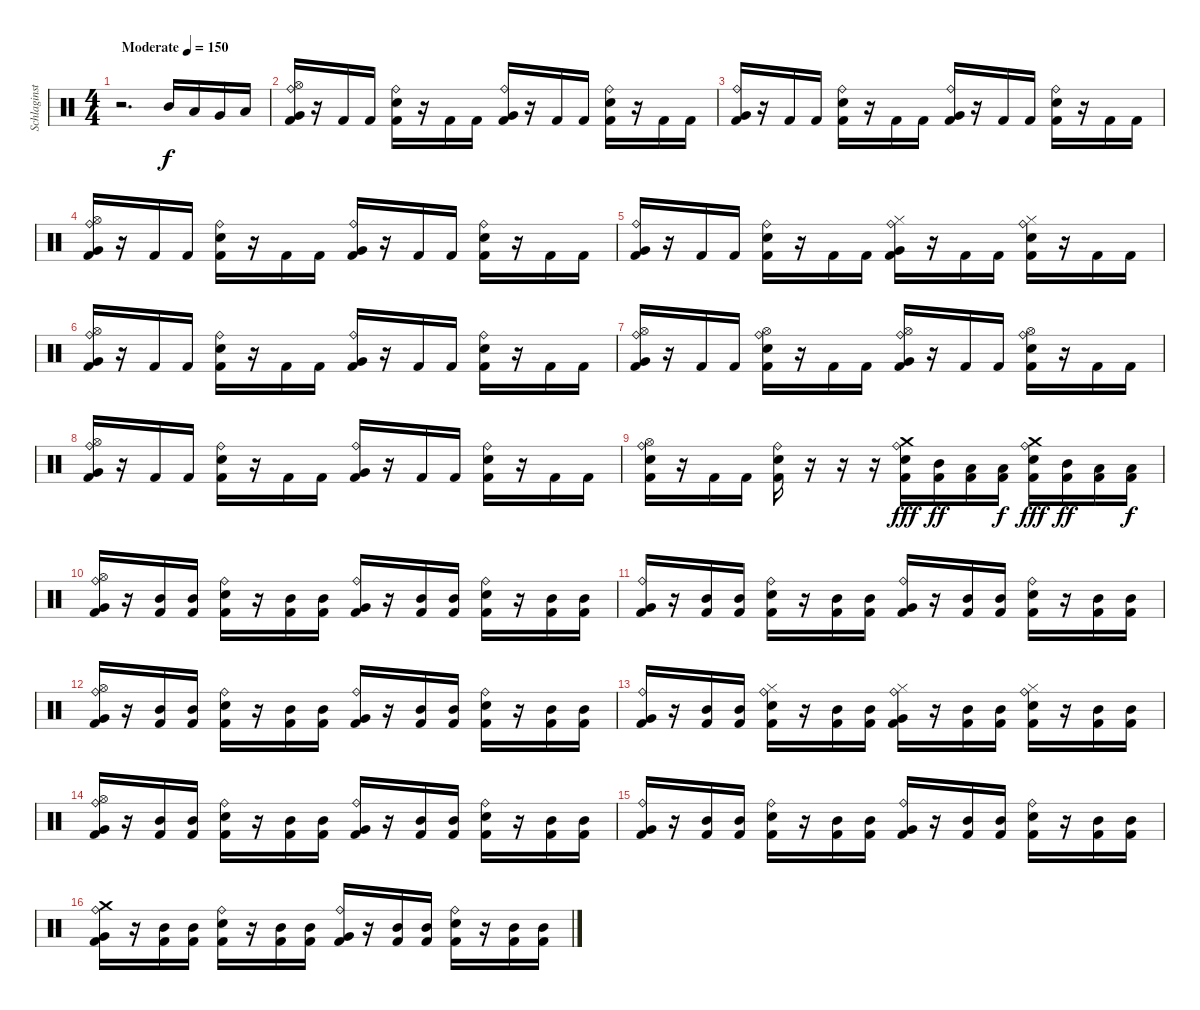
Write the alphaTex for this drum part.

\track ("Schlaginstrumente - Auswahl" "Schlaginst") {instrument percussion}
\staff {score}
\articulation defaults
\ts (4 4)
\tempo (150 "Moderate")
\clef neutral
\ks c
r.2{d dy f} "Mid Tom (hit)".16 "Low Tom (hit)".16 "Very Low Tom (hit)".16 "Low Floor Tom (hit)".16 |
("Ride (bell)" "Hi-Hat (open)" "Very Low Tom (hit)" "Kick (hit) 2").16 r.16 "Kick (hit) 2".16 "Kick (hit) 2".16 ("Ride (bell)" "Electric Snare (hit)" "Kick (hit) 2").16 r.16 "Kick (hit) 2".16 "Kick (hit) 2".16 ("Ride (bell)" "Very Low Tom (hit)" "Kick (hit) 2").16 r.16 "Kick (hit) 2".16 "Kick (hit) 2".16 ("Ride (bell)" "Electric Snare (hit)" "Kick (hit) 2").16 r.16 "Kick (hit) 2".16 "Kick (hit) 2".16 |
("Ride (bell)" "Very Low Tom (hit)" "Kick (hit) 2").16 r.16 "Kick (hit) 2".16 "Kick (hit) 2".16 ("Ride (bell)" "Electric Snare (hit)" "Kick (hit) 2").16 r.16 "Kick (hit) 2".16 "Kick (hit) 2".16 ("Ride (bell)" "Very Low Tom (hit)" "Kick (hit) 2").16 r.16 "Kick (hit) 2".16 "Kick (hit) 2".16 ("Ride (bell)" "Electric Snare (hit)" "Kick (hit) 2").16 r.16 "Kick (hit) 2".16 "Kick (hit) 2".16 |
("Ride (bell)" "Hi-Hat (open)" "Very Low Tom (hit)" "Kick (hit) 2").16 r.16 "Kick (hit) 2".16 "Kick (hit) 2".16 ("Ride (bell)" "Electric Snare (hit)" "Kick (hit) 2").16 r.16 "Kick (hit) 2".16 "Kick (hit) 2".16 ("Ride (bell)" "Very Low Tom (hit)" "Kick (hit) 2").16 r.16 "Kick (hit) 2".16 "Kick (hit) 2".16 ("Ride (bell)" "Electric Snare (hit)" "Kick (hit) 2").16 r.16 "Kick (hit) 2".16 "Kick (hit) 2".16 |
("Ride (bell)" "Very Low Tom (hit)" "Kick (hit) 2").16 r.16 "Kick (hit) 2".16 "Kick (hit) 2".16 ("Ride (bell)" "Electric Snare (hit)" "Kick (hit) 2").16 r.16 "Kick (hit) 2".16 "Kick (hit) 2".16 ("Ride (bell)" "Hi-Hat (closed)" "Very Low Tom (hit)" "Kick (hit) 2").16 r.16 "Kick (hit) 2".16 "Kick (hit) 2".16 ("Ride (bell)" "Hi-Hat (closed)" "Electric Snare (hit)" "Kick (hit) 2").16 r.16 "Kick (hit) 2".16 "Kick (hit) 2".16 |
("Ride (bell)" "Hi-Hat (open)" "Very Low Tom (hit)" "Kick (hit) 2").16 r.16 "Kick (hit) 2".16 "Kick (hit) 2".16 ("Ride (bell)" "Electric Snare (hit)" "Kick (hit) 2").16 r.16 "Kick (hit) 2".16 "Kick (hit) 2".16 ("Ride (bell)" "Very Low Tom (hit)" "Kick (hit) 2").16 r.16 "Kick (hit) 2".16 "Kick (hit) 2".16 ("Ride (bell)" "Electric Snare (hit)" "Kick (hit) 2").16 r.16 "Kick (hit) 2".16 "Kick (hit) 2".16 |
("Ride (bell)" "Hi-Hat (open)" "Very Low Tom (hit)" "Kick (hit) 2").16 r.16 "Kick (hit) 2".16 "Kick (hit) 2".16 ("Ride (bell)" "Hi-Hat (open)" "Electric Snare (hit)" "Kick (hit) 2").16 r.16 "Kick (hit) 2".16 "Kick (hit) 2".16 ("Ride (bell)" "Hi-Hat (open)" "Very Low Tom (hit)" "Kick (hit) 2").16 r.16 "Kick (hit) 2".16 "Kick (hit) 2".16 ("Ride (bell)" "Hi-Hat (open)" "Electric Snare (hit)" "Kick (hit) 2").16 r.16 "Kick (hit) 2".16 "Kick (hit) 2".16 |
("Ride (bell)" "Hi-Hat (open)" "Very Low Tom (hit)" "Kick (hit) 2").16 r.16 "Kick (hit) 2".16 "Kick (hit) 2".16 ("Ride (bell)" "Electric Snare (hit)" "Kick (hit) 2").16 r.16 "Kick (hit) 2".16 "Kick (hit) 2".16 ("Ride (bell)" "Very Low Tom (hit)" "Kick (hit) 2").16 r.16 "Kick (hit) 2".16 "Kick (hit) 2".16 ("Ride (bell)" "Electric Snare (hit)" "Kick (hit) 2").16 r.16 "Kick (hit) 2".16 "Kick (hit) 2".16 |
("Ride (bell)" "Hi-Hat (open)" "Electric Snare (hit)" "Kick (hit) 2").16 r.16 "Kick (hit) 2".16 "Kick (hit) 2".16 ("Ride (bell)" "Electric Snare (hit)" "Kick (hit) 2").16 r.16 r.16 r.16 ("Ride (bell)" "Crash medium (hit)" "Electric Snare (hit)" "Kick (hit) 2").16{dy fff} ("Mid Tom (hit)" "Kick (hit) 2").16{dy ff} ("Low Tom (hit)" "Kick (hit) 2").16 ("Low Floor Tom (hit)" "Kick (hit) 2").16{dy f} ("Ride (bell)" "Crash medium (hit)" "Electric Snare (hit)" "Kick (hit) 2").16{dy fff} ("Mid Tom (hit)" "Kick (hit) 2").16{dy ff} ("Low Tom (hit)" "Kick (hit) 2").16 ("Low Floor Tom (hit)" "Kick (hit) 2").16{dy f} |
("Ride (bell)" "Hi-Hat (open)" "Very Low Tom (hit)" "Kick (hit) 2").16 r.16 ("Mid Tom (hit)" "Kick (hit) 2").16 ("Mid Tom (hit)" "Kick (hit) 2").16 ("Ride (bell)" "Electric Snare (hit)" "Kick (hit) 2").16 r.16 ("Mid Tom (hit)" "Kick (hit) 2").16 ("Mid Tom (hit)" "Kick (hit) 2").16 ("Ride (bell)" "Very Low Tom (hit)" "Kick (hit) 2").16 r.16 ("Mid Tom (hit)" "Kick (hit) 2").16 ("Mid Tom (hit)" "Kick (hit) 2").16 ("Ride (bell)" "Electric Snare (hit)" "Kick (hit) 2").16 r.16 ("Mid Tom (hit)" "Kick (hit) 2").16 ("Mid Tom (hit)" "Kick (hit) 2").16 |
("Ride (bell)" "Very Low Tom (hit)" "Kick (hit) 2").16 r.16 ("Mid Tom (hit)" "Kick (hit) 2").16 ("Mid Tom (hit)" "Kick (hit) 2").16 ("Ride (bell)" "Electric Snare (hit)" "Kick (hit) 2").16 r.16 ("Mid Tom (hit)" "Kick (hit) 2").16 ("Mid Tom (hit)" "Kick (hit) 2").16 ("Ride (bell)" "Very Low Tom (hit)" "Kick (hit) 2").16 r.16 ("Mid Tom (hit)" "Kick (hit) 2").16 ("Mid Tom (hit)" "Kick (hit) 2").16 ("Ride (bell)" "Electric Snare (hit)" "Kick (hit) 2").16 r.16 ("Mid Tom (hit)" "Kick (hit) 2").16 ("Mid Tom (hit)" "Kick (hit) 2").16 |
("Ride (bell)" "Hi-Hat (open)" "Very Low Tom (hit)" "Kick (hit) 2").16 r.16 ("Mid Tom (hit)" "Kick (hit) 2").16 ("Mid Tom (hit)" "Kick (hit) 2").16 ("Ride (bell)" "Electric Snare (hit)" "Kick (hit) 2").16 r.16 ("Mid Tom (hit)" "Kick (hit) 2").16 ("Mid Tom (hit)" "Kick (hit) 2").16 ("Ride (bell)" "Very Low Tom (hit)" "Kick (hit) 2").16 r.16 ("Mid Tom (hit)" "Kick (hit) 2").16 ("Mid Tom (hit)" "Kick (hit) 2").16 ("Ride (bell)" "Electric Snare (hit)" "Kick (hit) 2").16 r.16 ("Mid Tom (hit)" "Kick (hit) 2").16 ("Mid Tom (hit)" "Kick (hit) 2").16 |
("Ride (bell)" "Very Low Tom (hit)" "Kick (hit) 2").16 r.16 ("Mid Tom (hit)" "Kick (hit) 2").16 ("Mid Tom (hit)" "Kick (hit) 2").16 ("Ride (bell)" "Hi-Hat (closed)" "Electric Snare (hit)" "Kick (hit) 2").16 r.16 ("Mid Tom (hit)" "Kick (hit) 2").16 ("Mid Tom (hit)" "Kick (hit) 2").16 ("Ride (bell)" "Hi-Hat (closed)" "Very Low Tom (hit)" "Kick (hit) 2").16 r.16 ("Mid Tom (hit)" "Kick (hit) 2").16 ("Mid Tom (hit)" "Kick (hit) 2").16 ("Ride (bell)" "Hi-Hat (closed)" "Electric Snare (hit)" "Kick (hit) 2").16 r.16 ("Mid Tom (hit)" "Kick (hit) 2").16 ("Mid Tom (hit)" "Kick (hit) 2").16 |
("Ride (bell)" "Hi-Hat (open)" "Very Low Tom (hit)" "Kick (hit) 2").16 r.16 ("Mid Tom (hit)" "Kick (hit) 2").16 ("Mid Tom (hit)" "Kick (hit) 2").16 ("Ride (bell)" "Electric Snare (hit)" "Kick (hit) 2").16 r.16 ("Mid Tom (hit)" "Kick (hit) 2").16 ("Mid Tom (hit)" "Kick (hit) 2").16 ("Ride (bell)" "Very Low Tom (hit)" "Kick (hit) 2").16 r.16 ("Mid Tom (hit)" "Kick (hit) 2").16 ("Mid Tom (hit)" "Kick (hit) 2").16 ("Ride (bell)" "Electric Snare (hit)" "Kick (hit) 2").16 r.16 ("Mid Tom (hit)" "Kick (hit) 2").16 ("Mid Tom (hit)" "Kick (hit) 2").16 |
("Ride (bell)" "Very Low Tom (hit)" "Kick (hit) 2").16 r.16 ("Mid Tom (hit)" "Kick (hit) 2").16 ("Mid Tom (hit)" "Kick (hit) 2").16 ("Ride (bell)" "Electric Snare (hit)" "Kick (hit) 2").16 r.16 ("Mid Tom (hit)" "Kick (hit) 2").16 ("Mid Tom (hit)" "Kick (hit) 2").16 ("Ride (bell)" "Very Low Tom (hit)" "Kick (hit) 2").16 r.16 ("Mid Tom (hit)" "Kick (hit) 2").16 ("Mid Tom (hit)" "Kick (hit) 2").16 ("Ride (bell)" "Electric Snare (hit)" "Kick (hit) 2").16 r.16 ("Mid Tom (hit)" "Kick (hit) 2").16 ("Mid Tom (hit)" "Kick (hit) 2").16 |
("Ride (bell)" "Crash medium (hit)" "Very Low Tom (hit)" "Kick (hit) 2").16 r.16 ("Mid Tom (hit)" "Kick (hit) 2").16 ("Mid Tom (hit)" "Kick (hit) 2").16 ("Ride (bell)" "Electric Snare (hit)" "Kick (hit) 2").16 r.16 ("Mid Tom (hit)" "Kick (hit) 2").16 ("Mid Tom (hit)" "Kick (hit) 2").16 ("Ride (bell)" "Very Low Tom (hit)" "Kick (hit) 2").16 r.16 ("Mid Tom (hit)" "Kick (hit) 2").16 ("Mid Tom (hit)" "Kick (hit) 2").16 ("Ride (bell)" "Electric Snare (hit)" "Kick (hit) 2").16 r.16 ("Mid Tom (hit)" "Kick (hit) 2").16 ("Mid Tom (hit)" "Kick (hit) 2").16
